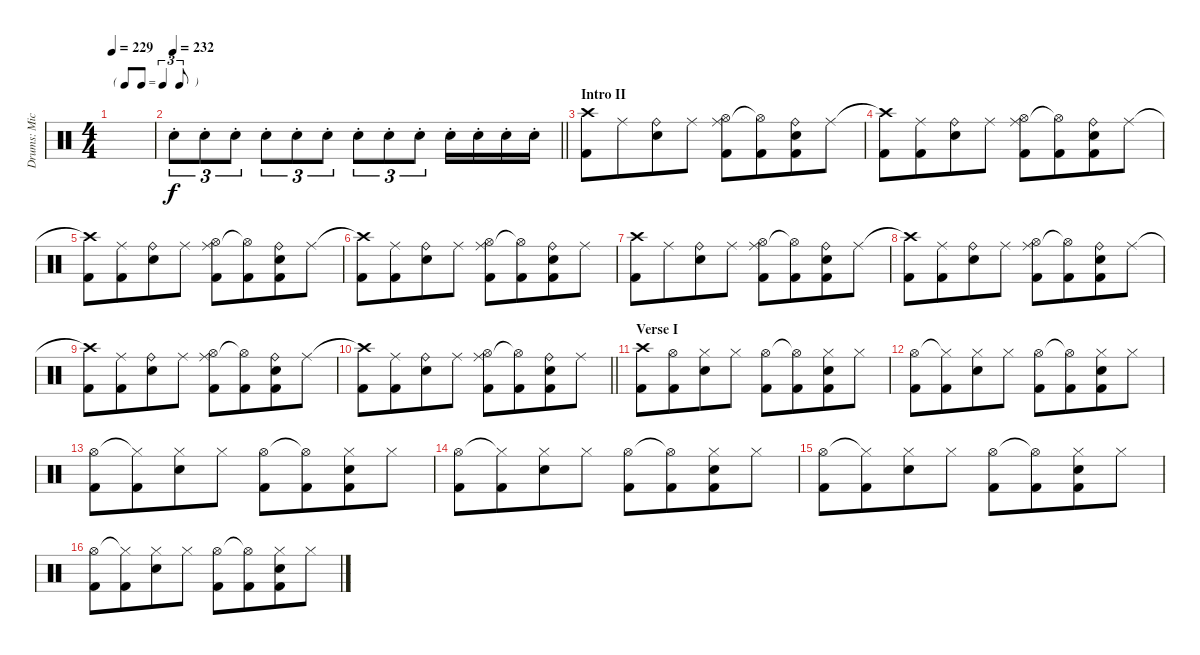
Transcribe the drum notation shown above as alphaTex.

\track ("Drums: Mick" "Drums: Mic") {instrument percussion}
\staff {score}
\articulation defaults
\ts (4 4)
\tf triplet8th
\tempo 229
\clef neutral
\ks c
|
\tempo 232
\barLineRight lightlight "Snare (hit) 2"{st}.8{tu (3 2)} "Snare (hit) 2"{st}.8{tu (3 2)} "Snare (hit) 2"{st}.8{tu (3 2)} "Snare (hit) 2"{st}.8{tu (3 2)} "Snare (hit) 2"{st}.8{tu (3 2)} "Snare (hit) 2"{st}.8{tu (3 2)} "Snare (hit) 2"{st}.8{tu (3 2)} "Snare (hit) 2"{st}.8{tu (3 2)} "Snare (hit) 2"{st}.8{tu (3 2)} "Snare (hit) 2"{st}.16 "Snare (hit) 2"{st}.16 "Snare (hit) 2"{st}.16 "Snare (hit) 2"{st}.16
|
\section ("" "Intro II")
("Crash high (hit)" "Kick (hit) 2").8 "Ride (middle)".8{beam merge} ("Ride (bell)" "Snare (hit) 2").8 "Ride (middle)".8 ("Ride (middle)" "Hi-Hat (open)" "Kick (hit) 2").8 ("Hi-Hat (open)"{t} "Kick (hit) 2").8{beam merge} ("Ride (bell)" "Snare (hit) 2" "Kick (hit) 2").8 "Ride (middle)".8 |
("Crash high (hit)"{t} "Kick (hit) 2").8 ("Ride (middle)" "Kick (hit) 2").8{beam merge} ("Ride (bell)" "Snare (hit) 2").8 "Ride (middle)".8 ("Ride (middle)" "Hi-Hat (open)" "Kick (hit) 2").8 ("Hi-Hat (open)"{t} "Kick (hit) 2").8{beam merge} ("Ride (bell)" "Snare (hit) 2" "Kick (hit) 2").8 "Ride (middle)".8 |
("Crash high (hit)"{t} "Kick (hit) 2").8 ("Ride (middle)" "Kick (hit) 2").8{beam merge} ("Ride (bell)" "Snare (hit) 2").8 "Ride (middle)".8 ("Ride (middle)" "Hi-Hat (open)" "Kick (hit) 2").8 ("Hi-Hat (open)"{t} "Kick (hit) 2").8{beam merge} ("Ride (bell)" "Snare (hit) 2" "Kick (hit) 2").8 "Ride (middle)".8 |
("Crash high (hit)"{t} "Kick (hit) 2").8 ("Ride (middle)" "Kick (hit) 2").8{beam merge} ("Ride (bell)" "Snare (hit) 2").8 "Ride (middle)".8 ("Ride (middle)" "Hi-Hat (open)" "Kick (hit) 2").8 ("Hi-Hat (open)"{t} "Kick (hit) 2").8{beam merge} ("Ride (bell)" "Snare (hit) 2" "Kick (hit) 2").8 "Ride (middle)".8 |
("Crash high (hit)" "Kick (hit) 2").8 "Ride (middle)".8{beam merge} ("Ride (bell)" "Snare (hit) 2").8 "Ride (middle)".8 ("Ride (middle)" "Hi-Hat (open)" "Kick (hit) 2").8 ("Hi-Hat (open)"{t} "Kick (hit) 2").8{beam merge} ("Ride (bell)" "Snare (hit) 2" "Kick (hit) 2").8 "Ride (middle)".8 |
("Crash high (hit)"{t} "Kick (hit) 2").8 ("Ride (middle)" "Kick (hit) 2").8{beam merge} ("Ride (bell)" "Snare (hit) 2").8 "Ride (middle)".8 ("Ride (middle)" "Hi-Hat (open)" "Kick (hit) 2").8 ("Hi-Hat (open)"{t} "Kick (hit) 2").8{beam merge} ("Ride (bell)" "Snare (hit) 2" "Kick (hit) 2").8 "Ride (middle)".8 |
("Crash high (hit)"{t} "Kick (hit) 2").8 ("Ride (middle)" "Kick (hit) 2").8{beam merge} ("Ride (bell)" "Snare (hit) 2").8 "Ride (middle)".8 ("Ride (middle)" "Hi-Hat (open)" "Kick (hit) 2").8 ("Hi-Hat (open)"{t} "Kick (hit) 2").8{beam merge} ("Ride (bell)" "Snare (hit) 2" "Kick (hit) 2").8 "Ride (middle)".8 |
\barLineRight lightlight
("Crash high (hit)"{t} "Kick (hit) 2").8 ("Ride (middle)" "Kick (hit) 2").8{beam merge} ("Ride (bell)" "Snare (hit) 2").8 "Ride (middle)".8 ("Ride (middle)" "Hi-Hat (open)" "Kick (hit) 2").8 ("Hi-Hat (open)"{t} "Kick (hit) 2").8{beam merge} ("Ride (bell)" "Snare (hit) 2" "Kick (hit) 2").8 "Ride (middle)".8 |
\section ("" "Verse I")
("Crash high (hit)" "Kick (hit) 2").8 ("Hi-Hat (open)" "Kick (hit) 2").8{beam merge} ("Hi-Hat (closed)" "Snare (hit) 2").8 "Hi-Hat (closed)".8 ("Hi-Hat (open)" "Kick (hit) 2").8 ("Hi-Hat (open)"{t} "Kick (hit) 2").8{beam merge} ("Hi-Hat (closed)" "Snare (hit) 2" "Kick (hit) 2").8 "Hi-Hat (closed)".8 |
("Hi-Hat (open)" "Kick (hit) 2").8 ("Hi-Hat (closed)"{t} "Kick (hit) 2").8{beam merge} ("Hi-Hat (closed)" "Snare (hit) 2").8 "Hi-Hat (closed)".8 ("Hi-Hat (open)" "Kick (hit) 2").8 ("Hi-Hat (open)"{t} "Kick (hit) 2").8{beam merge} ("Hi-Hat (closed)" "Snare (hit) 2" "Kick (hit) 2").8 "Hi-Hat (closed)".8 |
("Hi-Hat (open)" "Kick (hit) 2").8 ("Hi-Hat (closed)"{t} "Kick (hit) 2").8{beam merge} ("Hi-Hat (closed)" "Snare (hit) 2").8 "Hi-Hat (closed)".8 ("Hi-Hat (open)" "Kick (hit) 2").8 ("Hi-Hat (open)"{t} "Kick (hit) 2").8{beam merge} ("Hi-Hat (closed)" "Snare (hit) 2" "Kick (hit) 2").8 "Hi-Hat (closed)".8 |
("Hi-Hat (open)" "Kick (hit) 2").8 ("Hi-Hat (closed)"{t} "Kick (hit) 2").8{beam merge} ("Hi-Hat (closed)" "Snare (hit) 2").8 "Hi-Hat (closed)".8 ("Hi-Hat (open)" "Kick (hit) 2").8 ("Hi-Hat (open)"{t} "Kick (hit) 2").8{beam merge} ("Hi-Hat (closed)" "Snare (hit) 2" "Kick (hit) 2").8 "Hi-Hat (closed)".8 |
("Hi-Hat (open)" "Kick (hit) 2").8 ("Hi-Hat (closed)"{t} "Kick (hit) 2").8{beam merge} ("Hi-Hat (closed)" "Snare (hit) 2").8 "Hi-Hat (closed)".8 ("Hi-Hat (open)" "Kick (hit) 2").8 ("Hi-Hat (open)"{t} "Kick (hit) 2").8{beam merge} ("Hi-Hat (closed)" "Snare (hit) 2" "Kick (hit) 2").8 "Hi-Hat (closed)".8 |
("Hi-Hat (open)" "Kick (hit) 2").8 ("Hi-Hat (closed)"{t} "Kick (hit) 2").8{beam merge} ("Hi-Hat (closed)" "Snare (hit) 2").8 "Hi-Hat (closed)".8 ("Hi-Hat (open)" "Kick (hit) 2").8 ("Hi-Hat (open)"{t} "Kick (hit) 2").8{beam merge} ("Hi-Hat (closed)" "Snare (hit) 2" "Kick (hit) 2").8 "Hi-Hat (closed)".8
